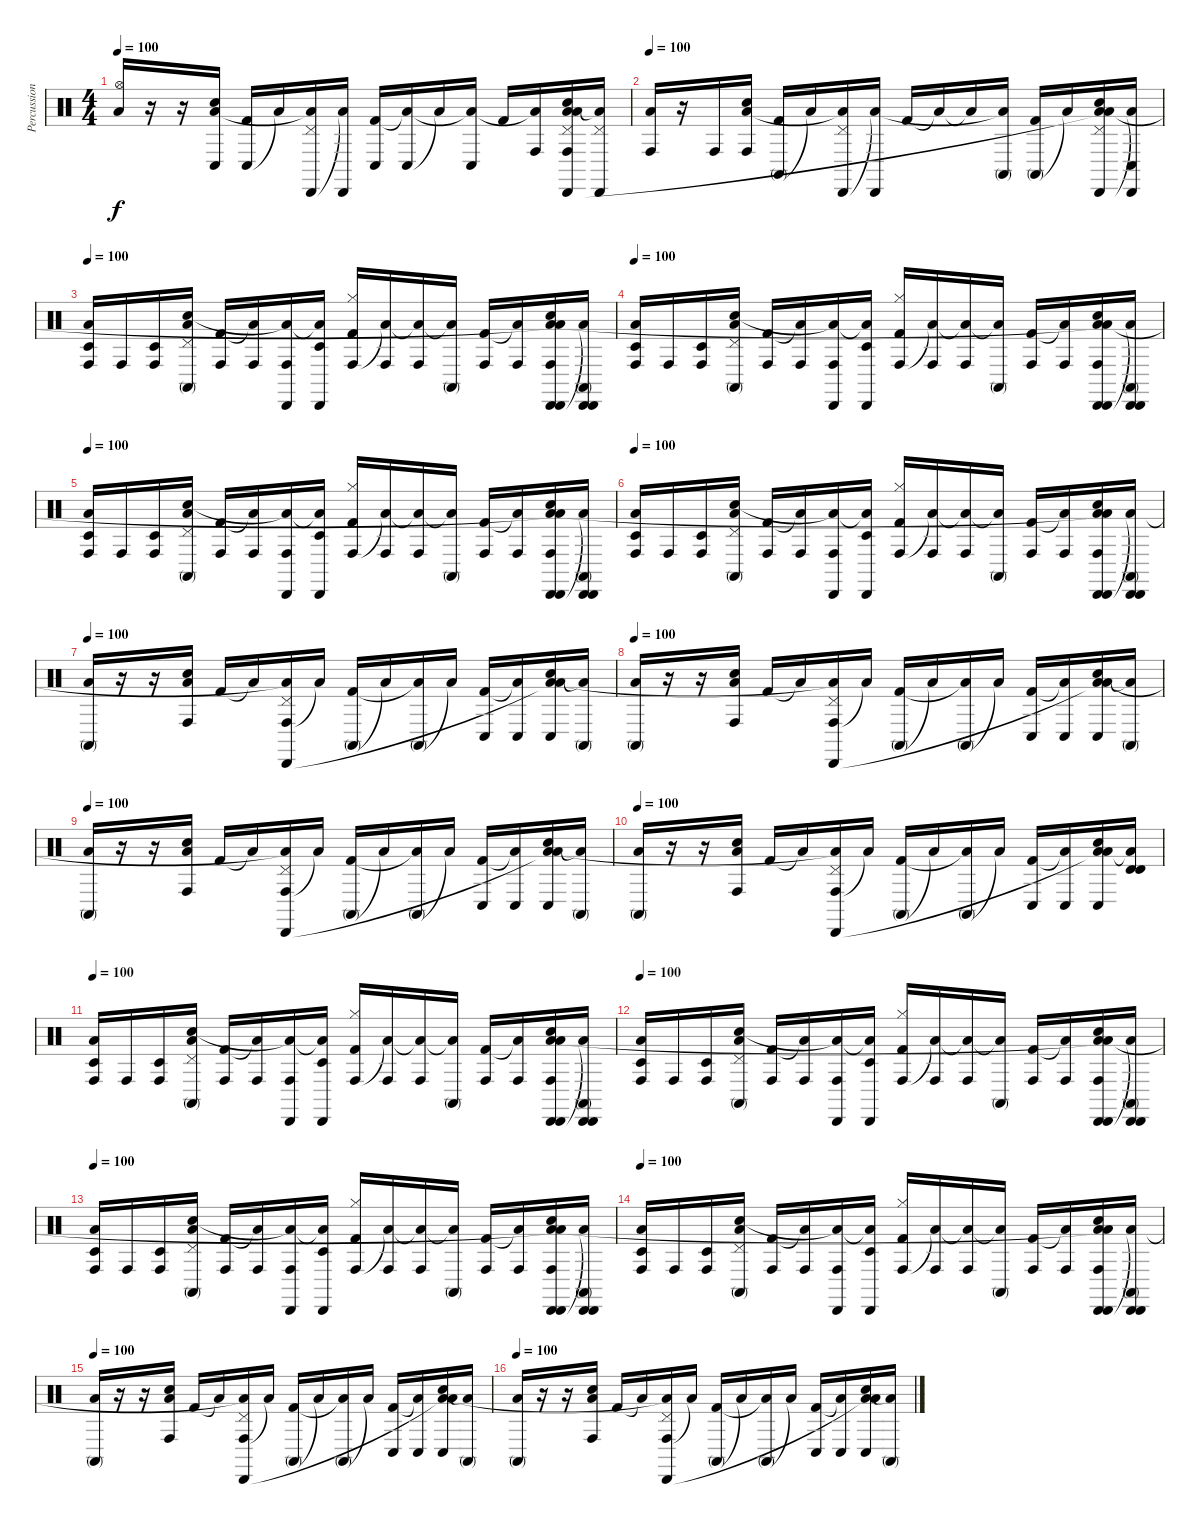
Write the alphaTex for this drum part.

\track ("Percussion" "Percussion") {instrument percussion}
\staff {score}
\articulation defaults
\ts (4 4)
\tempo 100
\clef neutral
\ks c
("Hi-Hat (open)" "Low Floor Tom (hit)").16{dy f} r.16 r.16 ("Conga low (hit)" "Hand Clap (hit)" "Low Tom (hit)").16 ("Conga low (hit)" "Kick (hit) 2").16 "Low Tom (hit)"{t}.16 ("Pedal Hi-Hat (hit)" "Cabasa (hit)" "Low Tom (hit)"{t}).16 ("Cabasa (hit)" "Low Tom (hit)"{t}).16 ("Conga low (hit)" "Kick (hit) 2").16 ("Conga low (hit)" "Low Tom (hit)"{t}).16 "Low Tom (hit)"{t}.16 ("Conga low (hit)" "Low Tom (hit)"{t}).16 "Kick (hit) 2".16 ("Conga high (hit)" "Low Tom (hit)"{t}).16 ("Pedal Hi-Hat (hit)" "Conga high (hit)" "Hand Clap (hit)" "Cabasa (hit)" "Low Tom (hit)"{t} "Low Floor Tom (hit)").16 ("Pedal Hi-Hat (hit)" "Cabasa (hit)" "Low Tom (hit)"{t}).16 |
\tempo 100
("Conga high (hit)" "Low Floor Tom (hit)").16 r.16 "Conga high (hit)".16 ("Conga high (hit)" "Hand Clap (hit)" "Low Tom (hit)").16 ("Conga high (mute)" "Kick (hit) 2").16 "Low Tom (hit)"{t}.16 ("Pedal Hi-Hat (hit)" "Cabasa (hit)" "Low Tom (hit)"{t}).16 ("Cabasa (hit)" "Low Tom (hit)"{t}).16 "Kick (hit) 2".16 "Low Tom (hit)"{t}.16 "Low Tom (hit)"{t}.16 ("Conga high (mute)" "Low Tom (hit)"{t}).16 ("Conga high (mute)" "Kick (hit) 2").16 "Low Tom (hit)"{t}.16 ("Pedal Hi-Hat (hit)" "Hand Clap (hit)" "Cabasa (hit)" "Low Tom (hit)"{t} "Low Floor Tom (hit)").16 ("Conga low (hit)" "Cabasa (hit)" "Low Tom (hit)"{t}).16 |
\tempo 100
("Timbale low (hit)" "Conga high (hit)" "Low Floor Tom (hit)").16 "Conga high (hit)".16 ("Timbale low (hit)" "Conga high (hit)").16 ("Pedal Hi-Hat (hit)" "Conga high (mute)" "Hand Clap (hit)" "Low Tom (hit)").16 ("Conga high (hit)" "Kick (hit) 2").16 ("Conga high (hit)" "Low Tom (hit)"{t}).16 ("Conga high (hit)" "Cabasa (hit)" "Low Tom (hit)"{t}).16 ("Timbale low (hit)" "Cabasa (hit)" "Low Tom (hit)"{t}).16 ("Hi-Hat (closed)" "Conga high (hit)" "Kick (hit) 2").16 ("Conga high (hit)" "Low Tom (hit)"{t}).16 ("Conga high (hit)" "Low Tom (hit)"{t}).16 ("Conga high (mute)" "Low Tom (hit)"{t}).16 ("Conga high (hit)" "Kick (hit) 2").16 ("Conga high (hit)" "Low Tom (hit)"{t}).16 ("Cabasa (hit)" "Conga high (hit)" "Hand Clap (hit)" "Cabasa (hit)" "Low Tom (hit)"{t} "Low Floor Tom (hit)").16 ("Cabasa (hit)" "Conga high (mute)" "Cabasa (hit)" "Low Tom (hit)"{t}).16 |
\tempo 100
("Timbale low (hit)" "Conga high (hit)" "Low Floor Tom (hit)").16 "Conga high (hit)".16 ("Timbale low (hit)" "Conga high (hit)").16 ("Pedal Hi-Hat (hit)" "Conga high (mute)" "Hand Clap (hit)" "Low Tom (hit)").16 ("Conga high (hit)" "Kick (hit) 2").16 ("Conga high (hit)" "Low Tom (hit)"{t}).16 ("Conga high (hit)" "Cabasa (hit)" "Low Tom (hit)"{t}).16 ("Timbale low (hit)" "Cabasa (hit)" "Low Tom (hit)"{t}).16 ("Hi-Hat (closed)" "Conga high (hit)" "Kick (hit) 2").16 ("Conga high (hit)" "Low Tom (hit)"{t}).16 ("Conga high (hit)" "Low Tom (hit)"{t}).16 ("Conga high (mute)" "Low Tom (hit)"{t}).16 ("Conga high (hit)" "Kick (hit) 2").16 ("Conga high (hit)" "Low Tom (hit)"{t}).16 ("Cabasa (hit)" "Conga high (hit)" "Hand Clap (hit)" "Cabasa (hit)" "Low Tom (hit)"{t} "Low Floor Tom (hit)").16 ("Cabasa (hit)" "Conga high (mute)" "Cabasa (hit)" "Low Tom (hit)"{t}).16 |
\tempo 100
("Timbale low (hit)" "Conga high (hit)" "Low Floor Tom (hit)").16 "Conga high (hit)".16 ("Timbale low (hit)" "Conga high (hit)").16 ("Pedal Hi-Hat (hit)" "Conga high (mute)" "Hand Clap (hit)" "Low Tom (hit)").16 ("Conga high (hit)" "Kick (hit) 2").16 ("Conga high (hit)" "Low Tom (hit)"{t}).16 ("Conga high (hit)" "Cabasa (hit)" "Low Tom (hit)"{t}).16 ("Timbale low (hit)" "Cabasa (hit)" "Low Tom (hit)"{t}).16 ("Hi-Hat (closed)" "Conga high (hit)" "Kick (hit) 2").16 ("Conga high (hit)" "Low Tom (hit)"{t}).16 ("Conga high (hit)" "Low Tom (hit)"{t}).16 ("Conga high (mute)" "Low Tom (hit)"{t}).16 ("Conga high (hit)" "Kick (hit) 2").16 ("Conga high (hit)" "Low Tom (hit)"{t}).16 ("Cabasa (hit)" "Conga high (hit)" "Hand Clap (hit)" "Cabasa (hit)" "Low Tom (hit)"{t} "Low Floor Tom (hit)").16 ("Cabasa (hit)" "Conga high (mute)" "Cabasa (hit)" "Low Tom (hit)"{t}).16 |
\tempo 100
("Timbale low (hit)" "Conga high (hit)" "Low Floor Tom (hit)").16 "Conga high (hit)".16 ("Timbale low (hit)" "Conga high (hit)").16 ("Pedal Hi-Hat (hit)" "Conga high (mute)" "Hand Clap (hit)" "Low Tom (hit)").16 ("Conga high (hit)" "Kick (hit) 2").16 ("Conga high (hit)" "Low Tom (hit)"{t}).16 ("Conga high (hit)" "Cabasa (hit)" "Low Tom (hit)"{t}).16 ("Timbale low (hit)" "Cabasa (hit)" "Low Tom (hit)"{t}).16 ("Hi-Hat (closed)" "Conga high (hit)" "Kick (hit) 2").16 ("Conga high (hit)" "Low Tom (hit)"{t}).16 ("Conga high (hit)" "Low Tom (hit)"{t}).16 ("Conga high (mute)" "Low Tom (hit)"{t}).16 ("Conga high (hit)" "Kick (hit) 2").16 ("Conga high (hit)" "Low Tom (hit)"{t}).16 ("Cabasa (hit)" "Conga high (hit)" "Hand Clap (hit)" "Cabasa (hit)" "Low Tom (hit)"{t} "Low Floor Tom (hit)").16 ("Cabasa (hit)" "Conga high (mute)" "Cabasa (hit)" "Low Tom (hit)"{t}).16 |
\tempo 100
("Conga high (mute)" "Low Floor Tom (hit)").16 r.16 r.16 ("Conga high (hit)" "Hand Clap (hit)" "Low Tom (hit)").16 "Kick (hit) 2".16 "Low Tom (hit)"{t}.16 ("Conga high (hit)" "Pedal Hi-Hat (hit)" "Cabasa (hit)" "Low Tom (hit)"{t}).16 "Low Tom (hit)"{t}.16 ("Conga high (mute)" "Kick (hit) 2").16 "Low Tom (hit)"{t}.16 ("Conga high (mute)" "Low Tom (hit)"{t}).16 "Low Tom (hit)"{t}.16 ("Conga low (hit)" "Kick (hit) 2").16 ("Conga low (hit)" "Low Tom (hit)"{t}).16 ("Conga low (hit)" "Hand Clap (hit)" "Low Tom (hit)"{t} "Low Floor Tom (hit)").16 ("Conga high (mute)" "Low Tom (hit)"{t}).16 |
\tempo 100
("Conga high (mute)" "Low Floor Tom (hit)").16 r.16 r.16 ("Conga high (hit)" "Hand Clap (hit)" "Low Tom (hit)").16 "Kick (hit) 2".16 "Low Tom (hit)"{t}.16 ("Conga high (hit)" "Pedal Hi-Hat (hit)" "Cabasa (hit)" "Low Tom (hit)"{t}).16 "Low Tom (hit)"{t}.16 ("Conga high (mute)" "Kick (hit) 2").16 "Low Tom (hit)"{t}.16 ("Conga high (mute)" "Low Tom (hit)"{t}).16 "Low Tom (hit)"{t}.16 ("Conga low (hit)" "Kick (hit) 2").16 ("Conga low (hit)" "Low Tom (hit)"{t}).16 ("Conga low (hit)" "Hand Clap (hit)" "Low Tom (hit)"{t} "Low Floor Tom (hit)").16 ("Conga high (mute)" "Low Tom (hit)"{t}).16 |
\tempo 100
("Conga high (mute)" "Low Floor Tom (hit)").16 r.16 r.16 ("Conga high (hit)" "Hand Clap (hit)" "Low Tom (hit)").16 "Kick (hit) 2".16 "Low Tom (hit)"{t}.16 ("Conga high (hit)" "Pedal Hi-Hat (hit)" "Cabasa (hit)" "Low Tom (hit)"{t}).16 "Low Tom (hit)"{t}.16 ("Conga high (mute)" "Kick (hit) 2").16 "Low Tom (hit)"{t}.16 ("Conga high (mute)" "Low Tom (hit)"{t}).16 "Low Tom (hit)"{t}.16 ("Conga low (hit)" "Kick (hit) 2").16 ("Conga low (hit)" "Low Tom (hit)"{t}).16 ("Conga low (hit)" "Hand Clap (hit)" "Low Tom (hit)"{t} "Low Floor Tom (hit)").16 ("Conga high (mute)" "Low Tom (hit)"{t}).16 |
\tempo 100
("Conga high (mute)" "Low Floor Tom (hit)").16 r.16 r.16 ("Conga high (hit)" "Hand Clap (hit)" "Low Tom (hit)").16 "Kick (hit) 2".16 "Low Tom (hit)"{t}.16 ("Conga high (hit)" "Pedal Hi-Hat (hit)" "Cabasa (hit)" "Low Tom (hit)"{t}).16 "Low Tom (hit)"{t}.16 ("Conga high (mute)" "Kick (hit) 2").16 "Low Tom (hit)"{t}.16 ("Conga high (mute)" "Low Tom (hit)"{t}).16 "Low Tom (hit)"{t}.16 ("Conga low (hit)" "Kick (hit) 2").16 ("Conga low (hit)" "Low Tom (hit)"{t}).16 ("Conga low (hit)" "Hand Clap (hit)" "Low Tom (hit)"{t} "Low Floor Tom (hit)").16 ("Timbale high (hit)" "Timbale high (hit)" "Low Tom (hit)"{t}).16 |
\tempo 100
("Timbale low (hit)" "Conga high (hit)" "Low Floor Tom (hit)").16 "Conga high (hit)".16 ("Timbale low (hit)" "Conga high (hit)").16 ("Pedal Hi-Hat (hit)" "Conga high (mute)" "Hand Clap (hit)" "Low Tom (hit)").16 ("Conga high (hit)" "Kick (hit) 2").16 ("Conga high (hit)" "Low Tom (hit)"{t}).16 ("Conga high (hit)" "Cabasa (hit)" "Low Tom (hit)"{t}).16 ("Timbale low (hit)" "Cabasa (hit)" "Low Tom (hit)"{t}).16 ("Hi-Hat (closed)" "Conga high (hit)" "Kick (hit) 2").16 ("Conga high (hit)" "Low Tom (hit)"{t}).16 ("Conga high (hit)" "Low Tom (hit)"{t}).16 ("Conga high (mute)" "Low Tom (hit)"{t}).16 ("Conga high (hit)" "Kick (hit) 2").16 ("Conga high (hit)" "Low Tom (hit)"{t}).16 ("Cabasa (hit)" "Conga high (hit)" "Hand Clap (hit)" "Cabasa (hit)" "Low Tom (hit)" "Low Floor Tom (hit)").16 ("Cabasa (hit)" "Conga high (mute)" "Cabasa (hit)" "Low Tom (hit)"{t}).16 |
\tempo 100
("Timbale low (hit)" "Conga high (hit)" "Low Floor Tom (hit)").16 "Conga high (hit)".16 ("Timbale low (hit)" "Conga high (hit)").16 ("Pedal Hi-Hat (hit)" "Conga high (mute)" "Hand Clap (hit)" "Low Tom (hit)").16 ("Conga high (hit)" "Kick (hit) 2").16 ("Conga high (hit)" "Low Tom (hit)"{t}).16 ("Conga high (hit)" "Cabasa (hit)" "Low Tom (hit)"{t}).16 ("Timbale low (hit)" "Cabasa (hit)" "Low Tom (hit)"{t}).16 ("Hi-Hat (closed)" "Conga high (hit)" "Kick (hit) 2").16 ("Conga high (hit)" "Low Tom (hit)"{t}).16 ("Conga high (hit)" "Low Tom (hit)"{t}).16 ("Conga high (mute)" "Low Tom (hit)"{t}).16 ("Conga high (hit)" "Kick (hit) 2").16 ("Conga high (hit)" "Low Tom (hit)"{t}).16 ("Cabasa (hit)" "Conga high (hit)" "Hand Clap (hit)" "Cabasa (hit)" "Low Tom (hit)"{t} "Low Floor Tom (hit)").16 ("Cabasa (hit)" "Conga high (mute)" "Cabasa (hit)" "Low Tom (hit)"{t}).16 |
\tempo 100
("Timbale low (hit)" "Conga high (hit)" "Low Floor Tom (hit)").16 "Conga high (hit)".16 ("Timbale low (hit)" "Conga high (hit)").16 ("Pedal Hi-Hat (hit)" "Conga high (mute)" "Hand Clap (hit)" "Low Tom (hit)").16 ("Conga high (hit)" "Kick (hit) 2").16 ("Conga high (hit)" "Low Tom (hit)"{t}).16 ("Conga high (hit)" "Cabasa (hit)" "Low Tom (hit)"{t}).16 ("Timbale low (hit)" "Cabasa (hit)" "Low Tom (hit)"{t}).16 ("Hi-Hat (closed)" "Conga high (hit)" "Kick (hit) 2").16 ("Conga high (hit)" "Low Tom (hit)"{t}).16 ("Conga high (hit)" "Low Tom (hit)"{t}).16 ("Conga high (mute)" "Low Tom (hit)"{t}).16 ("Conga high (hit)" "Kick (hit) 2").16 ("Conga high (hit)" "Low Tom (hit)"{t}).16 ("Cabasa (hit)" "Conga high (hit)" "Hand Clap (hit)" "Cabasa (hit)" "Low Tom (hit)"{t} "Low Floor Tom (hit)").16 ("Cabasa (hit)" "Conga high (mute)" "Cabasa (hit)" "Low Tom (hit)"{t}).16 |
\tempo 100
("Timbale low (hit)" "Conga high (hit)" "Low Floor Tom (hit)").16 "Conga high (hit)".16 ("Timbale low (hit)" "Conga high (hit)").16 ("Pedal Hi-Hat (hit)" "Conga high (mute)" "Hand Clap (hit)" "Low Tom (hit)").16 ("Conga high (hit)" "Kick (hit) 2").16 ("Conga high (hit)" "Low Tom (hit)"{t}).16 ("Conga high (hit)" "Cabasa (hit)" "Low Tom (hit)"{t}).16 ("Timbale low (hit)" "Cabasa (hit)" "Low Tom (hit)"{t}).16 ("Hi-Hat (closed)" "Conga high (hit)" "Kick (hit) 2").16 ("Conga high (hit)" "Low Tom (hit)"{t}).16 ("Conga high (hit)" "Low Tom (hit)"{t}).16 ("Conga high (mute)" "Low Tom (hit)"{t}).16 ("Conga high (hit)" "Kick (hit) 2").16 ("Conga high (hit)" "Low Tom (hit)"{t}).16 ("Cabasa (hit)" "Conga high (hit)" "Hand Clap (hit)" "Cabasa (hit)" "Low Tom (hit)"{t} "Low Floor Tom (hit)").16 ("Cabasa (hit)" "Conga high (mute)" "Cabasa (hit)" "Low Tom (hit)"{t}).16 |
\tempo 100
("Conga high (mute)" "Low Floor Tom (hit)").16 r.16 r.16 ("Conga high (hit)" "Hand Clap (hit)" "Low Tom (hit)").16 "Kick (hit) 2".16 "Low Tom (hit)"{t}.16 ("Conga high (hit)" "Pedal Hi-Hat (hit)" "Cabasa (hit)" "Low Tom (hit)"{t}).16 "Low Tom (hit)"{t}.16 ("Conga high (mute)" "Kick (hit) 2").16 "Low Tom (hit)"{t}.16 ("Conga high (mute)" "Low Tom (hit)"{t}).16 "Low Tom (hit)"{t}.16 ("Conga low (hit)" "Kick (hit) 2").16 ("Conga low (hit)" "Low Tom (hit)"{t}).16 ("Conga low (hit)" "Hand Clap (hit)" "Low Tom (hit)"{t} "Low Floor Tom (hit)").16 ("Conga high (mute)" "Low Tom (hit)"{t}).16 |
\tempo 100
("Conga high (mute)" "Low Floor Tom (hit)").16 r.16 r.16 ("Conga high (hit)" "Hand Clap (hit)" "Low Tom (hit)").16 "Kick (hit) 2".16 "Low Tom (hit)"{t}.16 ("Conga high (hit)" "Pedal Hi-Hat (hit)" "Cabasa (hit)" "Low Tom (hit)"{t}).16 "Low Tom (hit)"{t}.16 ("Conga high (mute)" "Kick (hit) 2").16 "Low Tom (hit)"{t}.16 ("Conga high (mute)" "Low Tom (hit)"{t}).16 "Low Tom (hit)"{t}.16 ("Conga low (hit)" "Kick (hit) 2").16 ("Conga low (hit)" "Low Tom (hit)"{t}).16 ("Conga low (hit)" "Hand Clap (hit)" "Low Tom (hit)"{t} "Low Floor Tom (hit)").16 ("Conga high (mute)" "Low Tom (hit)"{t}).16
